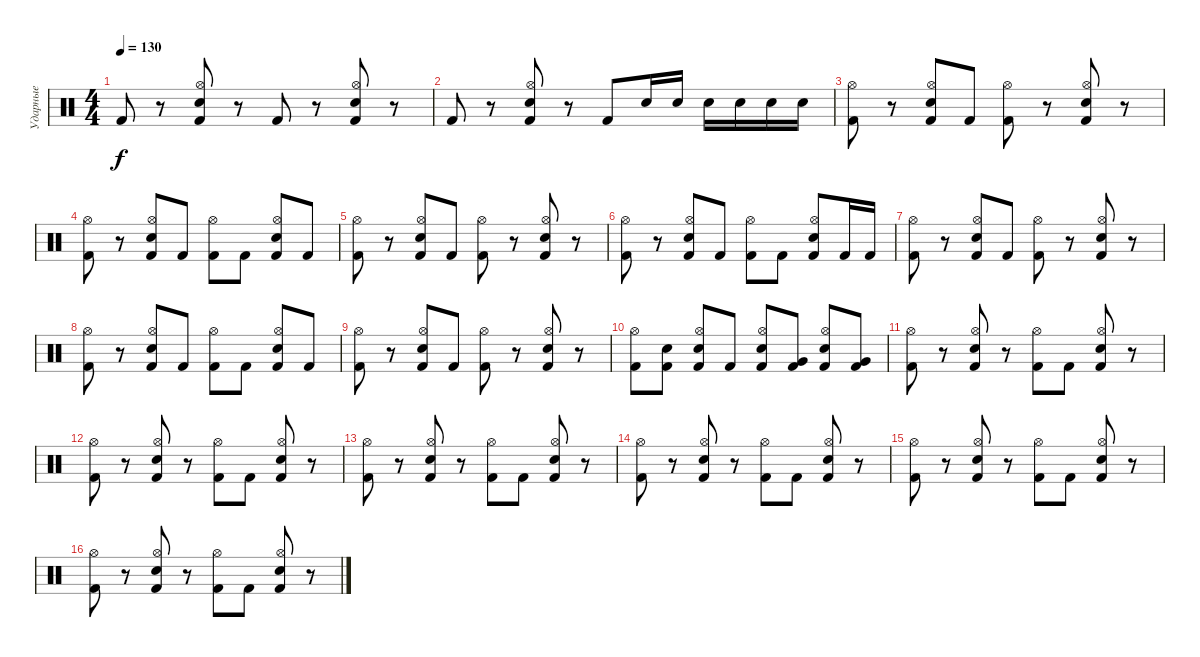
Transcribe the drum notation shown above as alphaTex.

\track ("Ударные" "Ударные") {instrument percussion}
\staff {score}
\articulation defaults
\ts (4 4)
\tempo 130
\clef neutral
\ks c "Kick (hit) 2".8{dy f}
r.8 ("Hi-Hat (open)" "Snare (hit) 2" "Kick (hit) 2").8 r.8 "Kick (hit) 2".8 r.8 ("Hi-Hat (open)" "Snare (hit) 2" "Kick (hit) 2").8 r.8 |
"Kick (hit) 2".8 r.8 ("Hi-Hat (open)" "Snare (hit) 2" "Kick (hit) 2").8 r.8 "Kick (hit) 2".8 "Snare (hit) 2".16 "Snare (hit) 2".16 "Snare (hit) 2".16 "Snare (hit) 2".16 "Snare (hit) 2".16 "Snare (hit) 2".16 |
("Hi-Hat (open)" "Kick (hit) 2").8 r.8 ("Hi-Hat (open)" "Snare (hit) 2" "Kick (hit) 2").8 "Kick (hit) 2".8 ("Hi-Hat (open)" "Kick (hit) 2").8 r.8 ("Hi-Hat (open)" "Snare (hit) 2" "Kick (hit) 2").8 r.8 |
("Hi-Hat (open)" "Kick (hit) 2").8 r.8 ("Hi-Hat (open)" "Snare (hit) 2" "Kick (hit) 2").8 "Kick (hit) 2".8 ("Hi-Hat (open)" "Kick (hit) 2").8 "Kick (hit) 2".8 ("Hi-Hat (open)" "Snare (hit) 2" "Kick (hit) 2").8 "Kick (hit) 2".8 |
("Hi-Hat (open)" "Kick (hit) 2").8 r.8 ("Hi-Hat (open)" "Snare (hit) 2" "Kick (hit) 2").8 "Kick (hit) 2".8 ("Hi-Hat (open)" "Kick (hit) 2").8 r.8 ("Hi-Hat (open)" "Snare (hit) 2" "Kick (hit) 2").8 r.8 |
("Hi-Hat (open)" "Kick (hit) 2").8 r.8 ("Hi-Hat (open)" "Snare (hit) 2" "Kick (hit) 2").8 "Kick (hit) 2".8 ("Hi-Hat (open)" "Kick (hit) 2").8 "Kick (hit) 2".8 ("Hi-Hat (open)" "Snare (hit) 2" "Kick (hit) 2").8 "Kick (hit) 2".16 "Kick (hit) 2".16 |
("Hi-Hat (open)" "Kick (hit) 2").8 r.8 ("Hi-Hat (open)" "Snare (hit) 2" "Kick (hit) 2").8 "Kick (hit) 2".8 ("Hi-Hat (open)" "Kick (hit) 2").8 r.8 ("Hi-Hat (open)" "Snare (hit) 2" "Kick (hit) 2").8 r.8 |
("Hi-Hat (open)" "Kick (hit) 2").8 r.8 ("Hi-Hat (open)" "Snare (hit) 2" "Kick (hit) 2").8 "Kick (hit) 2".8 ("Hi-Hat (open)" "Kick (hit) 2").8 "Kick (hit) 2".8 ("Hi-Hat (open)" "Snare (hit) 2" "Kick (hit) 2").8 "Kick (hit) 2".8 |
("Hi-Hat (open)" "Kick (hit) 2").8 r.8 ("Hi-Hat (open)" "Snare (hit) 2" "Kick (hit) 2").8 "Kick (hit) 2".8 ("Hi-Hat (open)" "Kick (hit) 2").8 r.8 ("Hi-Hat (open)" "Snare (hit) 2" "Kick (hit) 2").8 r.8 |
("Hi-Hat (open)" "Kick (hit) 2").8 ("Snare (hit) 2" "Kick (hit) 2").8 ("Hi-Hat (open)" "Snare (hit) 2" "Kick (hit) 2").8 "Kick (hit) 2".8 ("Hi-Hat (open)" "Snare (hit) 2" "Kick (hit) 2").8 ("Very Low Tom (hit)" "Kick (hit) 2").8 ("Hi-Hat (open)" "Snare (hit) 2" "Kick (hit) 2").8 ("Very Low Tom (hit)" "Kick (hit) 2").8 |
("Hi-Hat (open)" "Kick (hit) 2").8 r.8 ("Hi-Hat (open)" "Snare (hit) 2" "Kick (hit) 2").8 r.8 ("Hi-Hat (open)" "Kick (hit) 2").8 "Kick (hit) 2".8 ("Hi-Hat (open)" "Snare (hit) 2" "Kick (hit) 2").8 r.8 |
("Hi-Hat (open)" "Kick (hit) 2").8 r.8 ("Hi-Hat (open)" "Snare (hit) 2" "Kick (hit) 2").8 r.8 ("Hi-Hat (open)" "Kick (hit) 2").8 "Kick (hit) 2".8 ("Hi-Hat (open)" "Snare (hit) 2" "Kick (hit) 2").8 r.8 |
("Hi-Hat (open)" "Kick (hit) 2").8 r.8 ("Hi-Hat (open)" "Snare (hit) 2" "Kick (hit) 2").8 r.8 ("Hi-Hat (open)" "Kick (hit) 2").8 "Kick (hit) 2".8 ("Hi-Hat (open)" "Snare (hit) 2" "Kick (hit) 2").8 r.8 |
("Hi-Hat (open)" "Kick (hit) 2").8 r.8 ("Hi-Hat (open)" "Snare (hit) 2" "Kick (hit) 2").8 r.8 ("Hi-Hat (open)" "Kick (hit) 2").8 "Kick (hit) 2".8 ("Hi-Hat (open)" "Snare (hit) 2" "Kick (hit) 2").8 r.8 |
("Hi-Hat (open)" "Kick (hit) 2").8 r.8 ("Hi-Hat (open)" "Snare (hit) 2" "Kick (hit) 2").8 r.8 ("Hi-Hat (open)" "Kick (hit) 2").8 "Kick (hit) 2".8 ("Hi-Hat (open)" "Snare (hit) 2" "Kick (hit) 2").8 r.8 |
("Hi-Hat (open)" "Kick (hit) 2").8 r.8 ("Hi-Hat (open)" "Snare (hit) 2" "Kick (hit) 2").8 r.8 ("Hi-Hat (open)" "Kick (hit) 2").8 "Kick (hit) 2".8 ("Hi-Hat (open)" "Snare (hit) 2" "Kick (hit) 2").8 r.8
